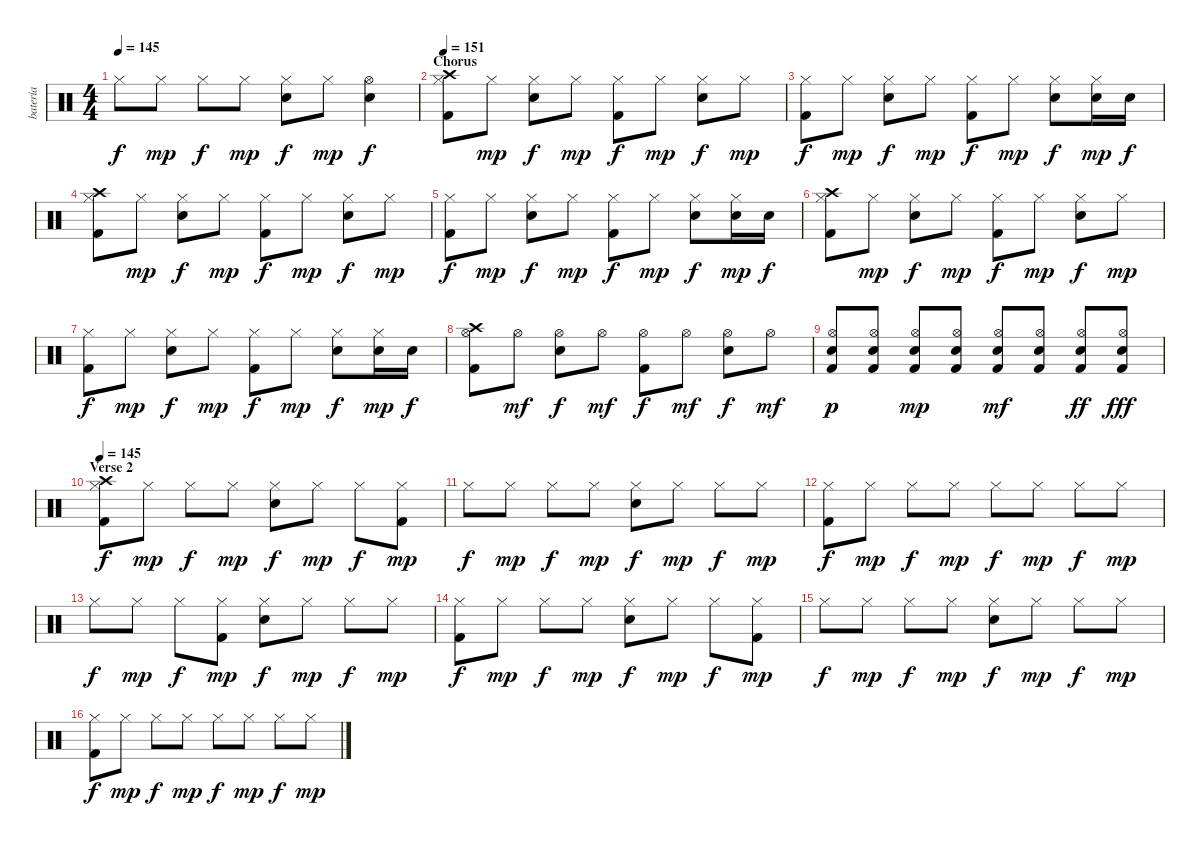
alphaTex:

\track ("batería" "batería") {instrument percussion}
\staff {score}
\articulation defaults
\ts (4 4)
\tempo 145
\clef neutral
\ks c "Hi-Hat (closed)".8{dy f} "Hi-Hat (closed)".8{dy mp} "Hi-Hat (closed)".8{dy f} "Hi-Hat (closed)".8{dy mp}
("Hi-Hat (closed)" "Electric Snare (hit)").8{dy f} "Hi-Hat (closed)".8{dy mp} ("Hi-Hat (open)" "Electric Snare (hit)").4{dy f} |
\section ("" "Chorus")
\tempo 151
("Crash high (hit)" "Hi-Hat (closed)" "Kick (hit) 2").8 "Hi-Hat (closed)".8{dy mp} ("Hi-Hat (closed)" "Electric Snare (hit)").8{dy f} "Hi-Hat (closed)".8{dy mp} ("Hi-Hat (closed)" "Kick (hit) 2").8{dy f} "Hi-Hat (closed)".8{dy mp} ("Hi-Hat (closed)" "Electric Snare (hit)").8{dy f} "Hi-Hat (closed)".8{dy mp} |
("Hi-Hat (closed)" "Kick (hit) 2").8{dy f} "Hi-Hat (closed)".8{dy mp} ("Hi-Hat (closed)" "Electric Snare (hit)").8{dy f} "Hi-Hat (closed)".8{dy mp} ("Hi-Hat (closed)" "Kick (hit) 2").8{dy f} "Hi-Hat (closed)".8{dy mp} ("Hi-Hat (closed)" "Electric Snare (hit)").8{dy f} ("Hi-Hat (closed)" "Electric Snare (hit)").16{dy mp} "Electric Snare (hit)".16{dy f} |
("Crash high (hit)" "Hi-Hat (closed)" "Kick (hit) 2").8 "Hi-Hat (closed)".8{dy mp} ("Hi-Hat (closed)" "Electric Snare (hit)").8{dy f} "Hi-Hat (closed)".8{dy mp} ("Hi-Hat (closed)" "Kick (hit) 2").8{dy f} "Hi-Hat (closed)".8{dy mp} ("Hi-Hat (closed)" "Electric Snare (hit)").8{dy f} "Hi-Hat (closed)".8{dy mp} |
("Hi-Hat (closed)" "Kick (hit) 2").8{dy f} "Hi-Hat (closed)".8{dy mp} ("Hi-Hat (closed)" "Electric Snare (hit)").8{dy f} "Hi-Hat (closed)".8{dy mp} ("Hi-Hat (closed)" "Kick (hit) 2").8{dy f} "Hi-Hat (closed)".8{dy mp} ("Hi-Hat (closed)" "Electric Snare (hit)").8{dy f} ("Hi-Hat (closed)" "Electric Snare (hit)").16{dy mp} "Electric Snare (hit)".16{dy f} |
("Crash high (hit)" "Hi-Hat (closed)" "Kick (hit) 2").8 "Hi-Hat (closed)".8{dy mp} ("Hi-Hat (closed)" "Electric Snare (hit)").8{dy f} "Hi-Hat (closed)".8{dy mp} ("Hi-Hat (closed)" "Kick (hit) 2").8{dy f} "Hi-Hat (closed)".8{dy mp} ("Hi-Hat (closed)" "Electric Snare (hit)").8{dy f} "Hi-Hat (closed)".8{dy mp} |
("Hi-Hat (closed)" "Kick (hit) 2").8{dy f} "Hi-Hat (closed)".8{dy mp} ("Hi-Hat (closed)" "Electric Snare (hit)").8{dy f} "Hi-Hat (closed)".8{dy mp} ("Hi-Hat (closed)" "Kick (hit) 2").8{dy f} "Hi-Hat (closed)".8{dy mp} ("Hi-Hat (closed)" "Electric Snare (hit)").8{dy f} ("Hi-Hat (closed)" "Electric Snare (hit)").16{dy mp} "Electric Snare (hit)".16{dy f} |
("Crash high (hit)" "Hi-Hat (open)" "Kick (hit) 2").8 "Hi-Hat (open)".8{dy mf} ("Hi-Hat (open)" "Electric Snare (hit)").8{dy f} "Hi-Hat (open)".8{dy mf} ("Hi-Hat (open)" "Kick (hit) 2").8{dy f} "Hi-Hat (open)".8{dy mf} ("Hi-Hat (open)" "Electric Snare (hit)").8{dy f} "Hi-Hat (open)".8{dy mf} |
("Hi-Hat (open)" "Electric Snare (hit)" "Kick (hit) 2").8{dy p} ("Hi-Hat (open)" "Electric Snare (hit)" "Kick (hit) 2").8 ("Hi-Hat (open)" "Electric Snare (hit)" "Kick (hit) 2").8{dy mp} ("Hi-Hat (open)" "Electric Snare (hit)" "Kick (hit) 2").8 ("Hi-Hat (open)" "Electric Snare (hit)" "Kick (hit) 2").8{dy mf} ("Hi-Hat (open)" "Electric Snare (hit)" "Kick (hit) 2").8 ("Hi-Hat (open)" "Electric Snare (hit)" "Kick (hit) 2").8{dy ff} ("Hi-Hat (open)" "Electric Snare (hit)" "Kick (hit) 2").8{dy fff} |
\section ("" "Verse 2")
\tempo 145
("Crash high (hit)" "Hi-Hat (closed)" "Kick (hit) 2").8{dy f} "Hi-Hat (closed)".8{dy mp} "Hi-Hat (closed)".8{dy f} "Hi-Hat (closed)".8{dy mp} ("Hi-Hat (closed)" "Electric Snare (hit)").8{dy f} "Hi-Hat (closed)".8{dy mp} "Hi-Hat (closed)".8{dy f} ("Hi-Hat (closed)" "Kick (hit) 2").8{dy mp} |
"Hi-Hat (closed)".8{dy f} "Hi-Hat (closed)".8{dy mp} "Hi-Hat (closed)".8{dy f} "Hi-Hat (closed)".8{dy mp} ("Hi-Hat (closed)" "Electric Snare (hit)").8{dy f} "Hi-Hat (closed)".8{dy mp} "Hi-Hat (closed)".8{dy f} "Hi-Hat (closed)".8{dy mp} |
("Hi-Hat (closed)" "Kick (hit) 2").8{dy f} "Hi-Hat (closed)".8{dy mp} "Hi-Hat (closed)".8{dy f} "Hi-Hat (closed)".8{dy mp} "Hi-Hat (closed)".8{dy f} "Hi-Hat (closed)".8{dy mp} "Hi-Hat (closed)".8{dy f} "Hi-Hat (closed)".8{dy mp} |
"Hi-Hat (closed)".8{dy f} "Hi-Hat (closed)".8{dy mp} "Hi-Hat (closed)".8{dy f} ("Hi-Hat (closed)" "Kick (hit) 2").8{dy mp} ("Hi-Hat (closed)" "Electric Snare (hit)").8{dy f} "Hi-Hat (closed)".8{dy mp} "Hi-Hat (closed)".8{dy f} "Hi-Hat (closed)".8{dy mp} |
("Hi-Hat (closed)" "Kick (hit) 2").8{dy f} "Hi-Hat (closed)".8{dy mp} "Hi-Hat (closed)".8{dy f} "Hi-Hat (closed)".8{dy mp} ("Hi-Hat (closed)" "Electric Snare (hit)").8{dy f} "Hi-Hat (closed)".8{dy mp} "Hi-Hat (closed)".8{dy f} ("Hi-Hat (closed)" "Kick (hit) 2").8{dy mp} |
"Hi-Hat (closed)".8{dy f} "Hi-Hat (closed)".8{dy mp} "Hi-Hat (closed)".8{dy f} "Hi-Hat (closed)".8{dy mp} ("Hi-Hat (closed)" "Electric Snare (hit)").8{dy f} "Hi-Hat (closed)".8{dy mp} "Hi-Hat (closed)".8{dy f} "Hi-Hat (closed)".8{dy mp} |
("Hi-Hat (closed)" "Kick (hit) 2").8{dy f} "Hi-Hat (closed)".8{dy mp} "Hi-Hat (closed)".8{dy f} "Hi-Hat (closed)".8{dy mp} "Hi-Hat (closed)".8{dy f} "Hi-Hat (closed)".8{dy mp} "Hi-Hat (closed)".8{dy f} "Hi-Hat (closed)".8{dy mp}
